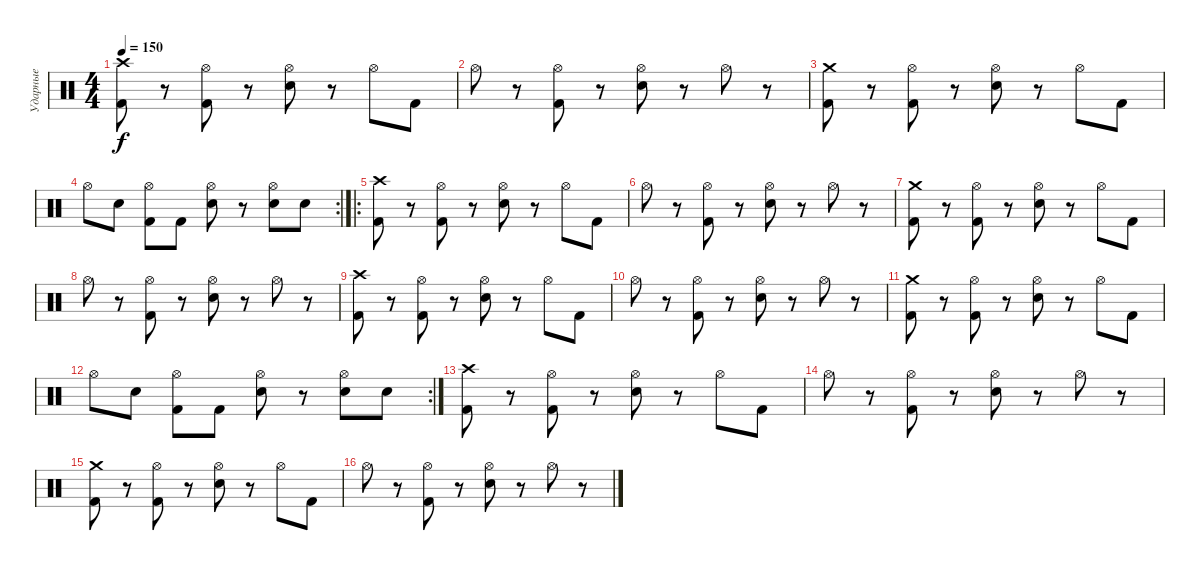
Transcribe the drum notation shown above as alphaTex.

\track ("Ударные" "Ударные") {instrument percussion}
\staff {score}
\articulation defaults
\ts (4 4)
\tempo 150
\clef neutral
\ks c
("Crash high (hit)" "Kick (hit) 2").8{dy f} r.8 ("Hi-Hat (open)" "Kick (hit) 2").8 r.8 ("Hi-Hat (open)" "Snare (hit) 2").8 r.8 "Hi-Hat (open)".8 "Kick (hit) 2".8 |
"Hi-Hat (open)".8 r.8 ("Hi-Hat (open)" "Kick (hit) 2").8 r.8 ("Hi-Hat (open)" "Snare (hit) 2").8 r.8 "Hi-Hat (open)".8 r.8 |
("Crash medium (hit)" "Kick (hit) 2").8 r.8 ("Hi-Hat (open)" "Kick (hit) 2").8 r.8 ("Hi-Hat (open)" "Snare (hit) 2").8 r.8 "Hi-Hat (open)".8 "Kick (hit) 2".8 |
\rc 2 "Hi-Hat (open)".8 "Snare (hit) 2".8
("Hi-Hat (open)" "Kick (hit) 2").8 "Kick (hit) 2".8 ("Hi-Hat (open)" "Snare (hit) 2").8 r.8 ("Hi-Hat (open)" "Snare (hit) 2").8 "Snare (hit) 2".8 |
\ro
("Crash high (hit)" "Kick (hit) 2").8 r.8 ("Hi-Hat (open)" "Kick (hit) 2").8 r.8 ("Hi-Hat (open)" "Snare (hit) 2").8 r.8 "Hi-Hat (open)".8 "Kick (hit) 2".8 |
"Hi-Hat (open)".8 r.8 ("Hi-Hat (open)" "Kick (hit) 2").8 r.8 ("Hi-Hat (open)" "Snare (hit) 2").8 r.8 "Hi-Hat (open)".8 r.8 |
("Crash medium (hit)" "Kick (hit) 2").8 r.8 ("Hi-Hat (open)" "Kick (hit) 2").8 r.8 ("Hi-Hat (open)" "Snare (hit) 2").8 r.8 "Hi-Hat (open)".8 "Kick (hit) 2".8 |
"Hi-Hat (open)".8 r.8 ("Hi-Hat (open)" "Kick (hit) 2").8 r.8 ("Hi-Hat (open)" "Snare (hit) 2").8 r.8 "Hi-Hat (open)".8 r.8 |
("Crash high (hit)" "Kick (hit) 2").8 r.8 ("Hi-Hat (open)" "Kick (hit) 2").8 r.8 ("Hi-Hat (open)" "Snare (hit) 2").8 r.8 "Hi-Hat (open)".8 "Kick (hit) 2".8 |
"Hi-Hat (open)".8 r.8 ("Hi-Hat (open)" "Kick (hit) 2").8 r.8 ("Hi-Hat (open)" "Snare (hit) 2").8 r.8 "Hi-Hat (open)".8 r.8 |
("Crash medium (hit)" "Kick (hit) 2").8 r.8 ("Hi-Hat (open)" "Kick (hit) 2").8 r.8 ("Hi-Hat (open)" "Snare (hit) 2").8 r.8 "Hi-Hat (open)".8 "Kick (hit) 2".8 |
\rc 2 "Hi-Hat (open)".8 "Snare (hit) 2".8
("Hi-Hat (open)" "Kick (hit) 2").8 "Kick (hit) 2".8 ("Hi-Hat (open)" "Snare (hit) 2").8 r.8 ("Hi-Hat (open)" "Snare (hit) 2").8 "Snare (hit) 2".8 |
("Crash high (hit)" "Kick (hit) 2").8 r.8 ("Hi-Hat (open)" "Kick (hit) 2").8 r.8 ("Hi-Hat (open)" "Snare (hit) 2").8 r.8 "Hi-Hat (open)".8 "Kick (hit) 2".8 |
"Hi-Hat (open)".8 r.8 ("Hi-Hat (open)" "Kick (hit) 2").8 r.8 ("Hi-Hat (open)" "Snare (hit) 2").8 r.8 "Hi-Hat (open)".8 r.8 |
("Crash medium (hit)" "Kick (hit) 2").8 r.8 ("Hi-Hat (open)" "Kick (hit) 2").8 r.8 ("Hi-Hat (open)" "Snare (hit) 2").8 r.8 "Hi-Hat (open)".8 "Kick (hit) 2".8 |
"Hi-Hat (open)".8 r.8 ("Hi-Hat (open)" "Kick (hit) 2").8 r.8 ("Hi-Hat (open)" "Snare (hit) 2").8 r.8 "Hi-Hat (open)".8 r.8
